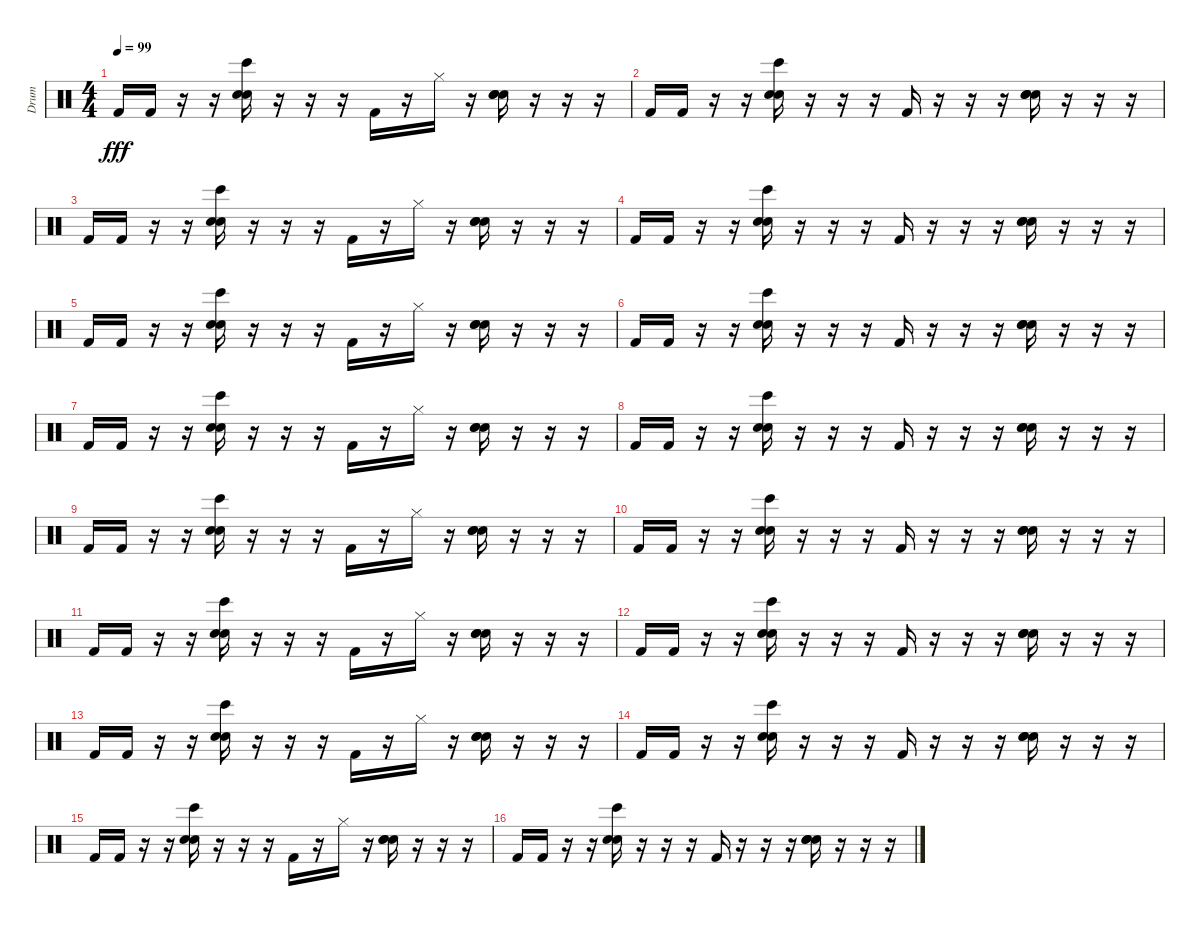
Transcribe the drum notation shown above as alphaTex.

\track ("Drum" "Drum") {instrument percussion}
\staff {score}
\articulation defaults
\ts (4 4)
\tempo 99
\clef neutral
\ks c "Kick (hit) 2".16{dy fff} "Kick (hit) 2".16
r.16 r.16 ("Electric Snare (hit)" "Bongo High (hit)" "Hand Clap (hit)").16 r.16 r.16 r.16 "Kick (hit) 2".16 r.16 "Hi-Hat (closed)".16 r.16 ("Electric Snare (hit)" "Hand Clap (hit)" "Hand Clap (hit)").16 r.16 r.16 r.16 |
"Kick (hit) 2".16 "Kick (hit) 2".16 r.16 r.16 ("Electric Snare (hit)" "Bongo High (hit)" "Hand Clap (hit)").16 r.16 r.16 r.16 "Kick (hit) 2".16 r.16 r.16 r.16 ("Electric Snare (hit)" "Hand Clap (hit)" "Hand Clap (hit)").16 r.16 r.16 r.16 |
"Kick (hit) 2".16 "Kick (hit) 2".16 r.16 r.16 ("Electric Snare (hit)" "Bongo High (hit)" "Hand Clap (hit)").16 r.16 r.16 r.16 "Kick (hit) 2".16 r.16 "Hi-Hat (closed)".16 r.16 ("Electric Snare (hit)" "Hand Clap (hit)" "Hand Clap (hit)").16 r.16 r.16 r.16 |
"Kick (hit) 2".16 "Kick (hit) 2".16 r.16 r.16 ("Electric Snare (hit)" "Bongo High (hit)" "Hand Clap (hit)").16 r.16 r.16 r.16 "Kick (hit) 2".16 r.16 r.16 r.16 ("Electric Snare (hit)" "Hand Clap (hit)" "Hand Clap (hit)").16 r.16 r.16 r.16 |
"Kick (hit) 2".16 "Kick (hit) 2".16 r.16 r.16 ("Electric Snare (hit)" "Bongo High (hit)" "Hand Clap (hit)").16 r.16 r.16 r.16 "Kick (hit) 2".16 r.16 "Hi-Hat (closed)".16 r.16 ("Electric Snare (hit)" "Hand Clap (hit)" "Hand Clap (hit)").16 r.16 r.16 r.16 |
"Kick (hit) 2".16 "Kick (hit) 2".16 r.16 r.16 ("Electric Snare (hit)" "Bongo High (hit)" "Hand Clap (hit)").16 r.16 r.16 r.16 "Kick (hit) 2".16 r.16 r.16 r.16 ("Electric Snare (hit)" "Hand Clap (hit)" "Hand Clap (hit)").16 r.16 r.16 r.16 |
"Kick (hit) 2".16 "Kick (hit) 2".16 r.16 r.16 ("Electric Snare (hit)" "Bongo High (hit)" "Hand Clap (hit)").16 r.16 r.16 r.16 "Kick (hit) 2".16 r.16 "Hi-Hat (closed)".16 r.16 ("Electric Snare (hit)" "Hand Clap (hit)" "Hand Clap (hit)").16 r.16 r.16 r.16 |
"Kick (hit) 2".16 "Kick (hit) 2".16 r.16 r.16 ("Electric Snare (hit)" "Bongo High (hit)" "Hand Clap (hit)").16 r.16 r.16 r.16 "Kick (hit) 2".16 r.16 r.16 r.16 ("Electric Snare (hit)" "Hand Clap (hit)" "Hand Clap (hit)").16 r.16 r.16 r.16 |
"Kick (hit) 2".16 "Kick (hit) 2".16 r.16 r.16 ("Electric Snare (hit)" "Bongo High (hit)" "Hand Clap (hit)").16 r.16 r.16 r.16 "Kick (hit) 2".16 r.16 "Hi-Hat (closed)".16 r.16 ("Electric Snare (hit)" "Hand Clap (hit)" "Hand Clap (hit)").16 r.16 r.16 r.16 |
"Kick (hit) 2".16 "Kick (hit) 2".16 r.16 r.16 ("Electric Snare (hit)" "Bongo High (hit)" "Hand Clap (hit)").16 r.16 r.16 r.16 "Kick (hit) 2".16 r.16 r.16 r.16 ("Electric Snare (hit)" "Hand Clap (hit)" "Hand Clap (hit)").16 r.16 r.16 r.16 |
"Kick (hit) 2".16 "Kick (hit) 2".16 r.16 r.16 ("Electric Snare (hit)" "Bongo High (hit)" "Hand Clap (hit)").16 r.16 r.16 r.16 "Kick (hit) 2".16 r.16 "Hi-Hat (closed)".16 r.16 ("Electric Snare (hit)" "Hand Clap (hit)" "Hand Clap (hit)").16 r.16 r.16 r.16 |
"Kick (hit) 2".16 "Kick (hit) 2".16 r.16 r.16 ("Electric Snare (hit)" "Bongo High (hit)" "Hand Clap (hit)").16 r.16 r.16 r.16 "Kick (hit) 2".16 r.16 r.16 r.16 ("Electric Snare (hit)" "Hand Clap (hit)" "Hand Clap (hit)").16 r.16 r.16 r.16 |
"Kick (hit) 2".16 "Kick (hit) 2".16 r.16 r.16 ("Electric Snare (hit)" "Bongo High (hit)" "Hand Clap (hit)").16 r.16 r.16 r.16 "Kick (hit) 2".16 r.16 "Hi-Hat (closed)".16 r.16 ("Electric Snare (hit)" "Hand Clap (hit)" "Hand Clap (hit)").16 r.16 r.16 r.16 |
"Kick (hit) 2".16 "Kick (hit) 2".16 r.16 r.16 ("Electric Snare (hit)" "Bongo High (hit)" "Hand Clap (hit)").16 r.16 r.16 r.16 "Kick (hit) 2".16 r.16 r.16 r.16 ("Electric Snare (hit)" "Hand Clap (hit)" "Hand Clap (hit)").16 r.16 r.16 r.16 |
"Kick (hit) 2".16 "Kick (hit) 2".16 r.16 r.16 ("Electric Snare (hit)" "Bongo High (hit)" "Hand Clap (hit)").16 r.16 r.16 r.16 "Kick (hit) 2".16 r.16 "Hi-Hat (closed)".16 r.16 ("Electric Snare (hit)" "Hand Clap (hit)" "Hand Clap (hit)").16 r.16 r.16 r.16 |
"Kick (hit) 2".16 "Kick (hit) 2".16 r.16 r.16 ("Electric Snare (hit)" "Bongo High (hit)" "Hand Clap (hit)").16 r.16 r.16 r.16 "Kick (hit) 2".16 r.16 r.16 r.16 ("Electric Snare (hit)" "Hand Clap (hit)" "Hand Clap (hit)").16 r.16 r.16 r.16
